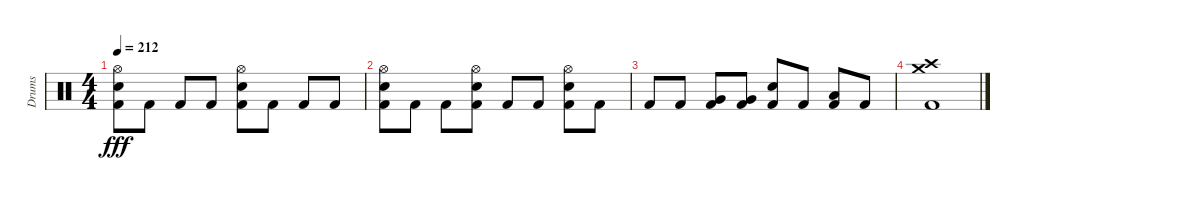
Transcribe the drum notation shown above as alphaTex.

\track ("Drums" "Drums") {instrument percussion}
\staff {score}
\articulation defaults
\ts (4 4)
\tempo 212
\clef neutral
\ks c
("Hi-Hat (open)" "Snare (hit) 2" "Kick (hit) 2").8{dy fff} "Kick (hit) 2".8 "Kick (hit) 2".8 "Kick (hit) 2".8 ("Hi-Hat (open)" "Snare (hit) 2" "Kick (hit) 2").8 "Kick (hit) 2".8 "Kick (hit) 2".8 "Kick (hit) 2".8 |
("Hi-Hat (open)" "Snare (hit) 2" "Kick (hit) 2").8 "Kick (hit) 2".8 "Kick (hit) 2".8 ("Hi-Hat (open)" "Snare (hit) 2" "Kick (hit) 2").8 "Kick (hit) 2".8 "Kick (hit) 2".8 ("Hi-Hat (open)" "Snare (hit) 2" "Kick (hit) 2").8 "Kick (hit) 2".8 |
"Kick (hit) 2".8 "Kick (hit) 2".8 ("Very Low Tom (hit)" "Kick (hit) 2").8 ("Very Low Tom (hit)" "Kick (hit) 2").8 ("Snare (hit) 2" "Kick (hit) 2").8 "Kick (hit) 2".8 ("Low Floor Tom (hit)" "Kick (hit) 2").8 "Kick (hit) 2".8 |
("Crash medium (hit)" "Crash high (hit)" "Kick (hit) 2").1
